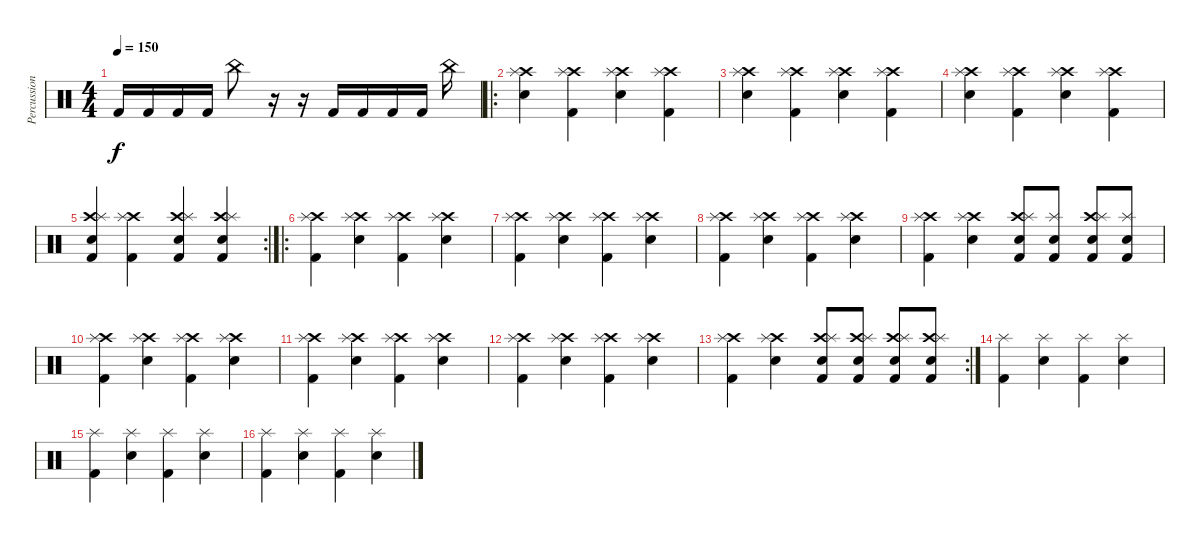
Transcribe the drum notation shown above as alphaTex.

\track ("Percussion" "Percussion") {instrument percussion}
\staff {score}
\articulation defaults
\ts (4 4)
\tempo 150
\clef neutral
\ks c "Kick (hit) 2".16{dy f} "Kick (hit) 2".16 "Kick (hit) 2".16 "Kick (hit) 2".16 "China (hit)".8
r.16 r.16 "Kick (hit) 2".16 "Kick (hit) 2".16 "Kick (hit) 2".16 "Kick (hit) 2".16 "China (hit)".16 |
\ro
("Crash high (hit)" "Splash (hit)" "Electric Snare (hit)").4 ("Crash high (hit)" "Splash (hit)" "Kick (hit) 2").4 ("Crash high (hit)" "Splash (hit)" "Electric Snare (hit)").4 ("Crash high (hit)" "Splash (hit)" "Kick (hit) 2").4 |
("Crash high (hit)" "Splash (hit)" "Electric Snare (hit)").4 ("Crash high (hit)" "Splash (hit)" "Kick (hit) 2").4 ("Crash high (hit)" "Splash (hit)" "Electric Snare (hit)").4 ("Crash high (hit)" "Splash (hit)" "Kick (hit) 2").4 |
("Crash high (hit)" "Splash (hit)" "Electric Snare (hit)").4 ("Crash high (hit)" "Splash (hit)" "Kick (hit) 2").4 ("Crash high (hit)" "Splash (hit)" "Electric Snare (hit)").4 ("Crash high (hit)" "Splash (hit)" "Kick (hit) 2").4 |
\rc 2
("Crash high (hit)" "Splash (hit)" "Electric Snare (hit)" "Kick (hit) 2").4 ("Crash high (hit)" "Splash (hit)" "Kick (hit) 2").4 ("Crash high (hit)" "Splash (hit)" "Electric Snare (hit)" "Kick (hit) 2").4 ("Crash high (hit)" "Splash (hit)" "Electric Snare (hit)" "Kick (hit) 2").4 |
\ro
("Crash high (hit)" "Splash (hit)" "Kick (hit) 2").4 ("Crash high (hit)" "Splash (hit)" "Electric Snare (hit)").4 ("Crash high (hit)" "Splash (hit)" "Kick (hit) 2").4 ("Crash high (hit)" "Splash (hit)" "Electric Snare (hit)").4 |
("Crash high (hit)" "Splash (hit)" "Kick (hit) 2").4 ("Crash high (hit)" "Splash (hit)" "Electric Snare (hit)").4 ("Crash high (hit)" "Splash (hit)" "Kick (hit) 2").4 ("Crash high (hit)" "Splash (hit)" "Electric Snare (hit)").4 |
("Crash high (hit)" "Splash (hit)" "Kick (hit) 2").4 ("Crash high (hit)" "Splash (hit)" "Electric Snare (hit)").4 ("Crash high (hit)" "Splash (hit)" "Kick (hit) 2").4 ("Crash high (hit)" "Splash (hit)" "Electric Snare (hit)").4 |
("Crash high (hit)" "Splash (hit)" "Kick (hit) 2").4 ("Crash high (hit)" "Splash (hit)" "Electric Snare (hit)").4 ("Crash high (hit)" "Splash (hit)" "Electric Snare (hit)" "Kick (hit) 2").8 ("Splash (hit)" "Electric Snare (hit)" "Kick (hit) 2").8 ("Crash high (hit)" "Splash (hit)" "Electric Snare (hit)" "Kick (hit) 2").8 ("Splash (hit)" "Electric Snare (hit)" "Kick (hit) 2").8 |
("Crash high (hit)" "Splash (hit)" "Kick (hit) 2").4 ("Crash high (hit)" "Splash (hit)" "Electric Snare (hit)").4 ("Crash high (hit)" "Splash (hit)" "Kick (hit) 2").4 ("Crash high (hit)" "Splash (hit)" "Electric Snare (hit)").4 |
("Crash high (hit)" "Splash (hit)" "Kick (hit) 2").4 ("Crash high (hit)" "Splash (hit)" "Electric Snare (hit)").4 ("Crash high (hit)" "Splash (hit)" "Kick (hit) 2").4 ("Crash high (hit)" "Splash (hit)" "Electric Snare (hit)").4 |
("Crash high (hit)" "Splash (hit)" "Kick (hit) 2").4 ("Crash high (hit)" "Splash (hit)" "Electric Snare (hit)").4 ("Crash high (hit)" "Splash (hit)" "Kick (hit) 2").4 ("Crash high (hit)" "Splash (hit)" "Electric Snare (hit)").4 |
\rc 2
("Crash high (hit)" "Splash (hit)" "Kick (hit) 2").4 ("Crash high (hit)" "Splash (hit)" "Electric Snare (hit)").4 ("Crash high (hit)" "Splash (hit)" "Electric Snare (hit)" "Kick (hit) 2").8 ("Crash high (hit)" "Splash (hit)" "Electric Snare (hit)" "Kick (hit) 2").8 ("Crash high (hit)" "Splash (hit)" "Electric Snare (hit)" "Kick (hit) 2").8 ("Crash high (hit)" "Splash (hit)" "Electric Snare (hit)" "Kick (hit) 2").8 |
("Splash (hit)" "Kick (hit) 2").4 ("Splash (hit)" "Electric Snare (hit)").4 ("Splash (hit)" "Kick (hit) 2").4 ("Splash (hit)" "Electric Snare (hit)").4 |
("Splash (hit)" "Kick (hit) 2").4 ("Splash (hit)" "Electric Snare (hit)").4 ("Splash (hit)" "Kick (hit) 2").4 ("Splash (hit)" "Electric Snare (hit)").4 |
("Splash (hit)" "Kick (hit) 2").4 ("Splash (hit)" "Electric Snare (hit)").4 ("Splash (hit)" "Kick (hit) 2").4 ("Splash (hit)" "Electric Snare (hit)").4
